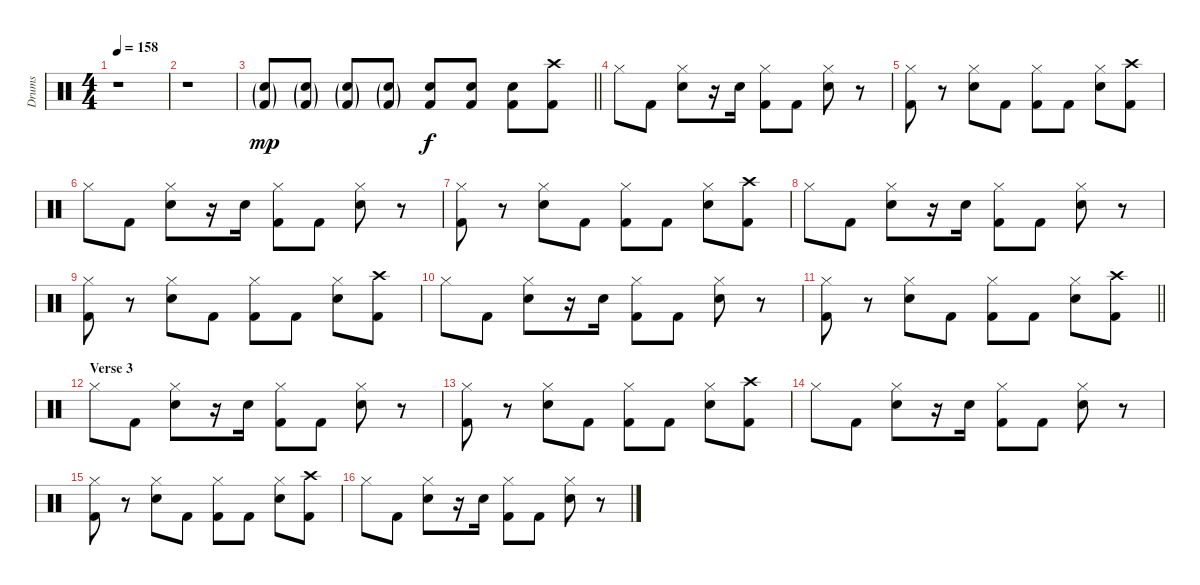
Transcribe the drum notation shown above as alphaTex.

\track ("Drums" "Drums") {instrument percussion}
\staff {score}
\articulation defaults
\ts (4 4)
\tempo 158
\clef neutral
\ks c
r.1{dy f} |
r.1 |
\barLineRight lightlight
("Snare (hit) 2"{g} "Kick (hit) 2"{g}).8{dy mp} ("Snare (hit) 2"{g} "Kick (hit) 2"{g}).8 ("Snare (hit) 2"{g} "Kick (hit) 2"{g}).8 ("Snare (hit) 2"{g} "Kick (hit) 2"{g}).8 ("Snare (hit) 2" "Kick (hit) 2").8{dy f} ("Snare (hit) 2" "Kick (hit) 2").8 ("Snare (hit) 2" "Kick (hit) 2").8 ("Crash high (hit)" "Kick (hit) 2").8 |
"Hi-Hat (closed)".8 "Kick (hit) 2".8 ("Hi-Hat (closed)" "Snare (hit) 2").8 r.16 "Snare (hit) 2".16 ("Hi-Hat (closed)" "Kick (hit) 2").8 "Kick (hit) 2".8 ("Hi-Hat (closed)" "Snare (hit) 2").8 r.8 |
("Hi-Hat (closed)" "Kick (hit) 2").8 r.8 ("Hi-Hat (closed)" "Snare (hit) 2").8 "Kick (hit) 2".8 ("Hi-Hat (closed)" "Kick (hit) 2").8 "Kick (hit) 2".8 ("Hi-Hat (closed)" "Snare (hit) 2").8 ("Crash high (hit)" "Kick (hit) 2").8 |
"Hi-Hat (closed)".8 "Kick (hit) 2".8 ("Hi-Hat (closed)" "Snare (hit) 2").8 r.16 "Snare (hit) 2".16 ("Hi-Hat (closed)" "Kick (hit) 2").8 "Kick (hit) 2".8 ("Hi-Hat (closed)" "Snare (hit) 2").8 r.8 |
("Hi-Hat (closed)" "Kick (hit) 2").8 r.8 ("Hi-Hat (closed)" "Snare (hit) 2").8 "Kick (hit) 2".8 ("Hi-Hat (closed)" "Kick (hit) 2").8 "Kick (hit) 2".8 ("Hi-Hat (closed)" "Snare (hit) 2").8 ("Crash high (hit)" "Kick (hit) 2").8 |
"Hi-Hat (closed)".8 "Kick (hit) 2".8 ("Hi-Hat (closed)" "Snare (hit) 2").8 r.16 "Snare (hit) 2".16 ("Hi-Hat (closed)" "Kick (hit) 2").8 "Kick (hit) 2".8 ("Hi-Hat (closed)" "Snare (hit) 2").8 r.8 |
("Hi-Hat (closed)" "Kick (hit) 2").8 r.8 ("Hi-Hat (closed)" "Snare (hit) 2").8 "Kick (hit) 2".8 ("Hi-Hat (closed)" "Kick (hit) 2").8 "Kick (hit) 2".8 ("Hi-Hat (closed)" "Snare (hit) 2").8 ("Crash high (hit)" "Kick (hit) 2").8 |
"Hi-Hat (closed)".8 "Kick (hit) 2".8 ("Hi-Hat (closed)" "Snare (hit) 2").8 r.16 "Snare (hit) 2".16 ("Hi-Hat (closed)" "Kick (hit) 2").8 "Kick (hit) 2".8 ("Hi-Hat (closed)" "Snare (hit) 2").8 r.8 |
\barLineRight lightlight
("Hi-Hat (closed)" "Kick (hit) 2").8 r.8 ("Hi-Hat (closed)" "Snare (hit) 2").8 "Kick (hit) 2".8 ("Hi-Hat (closed)" "Kick (hit) 2").8 "Kick (hit) 2".8 ("Hi-Hat (closed)" "Snare (hit) 2").8 ("Crash high (hit)" "Kick (hit) 2").8 |
\section ("" "Verse 3")
"Hi-Hat (closed)".8 "Kick (hit) 2".8 ("Hi-Hat (closed)" "Snare (hit) 2").8 r.16 "Snare (hit) 2".16 ("Hi-Hat (closed)" "Kick (hit) 2").8 "Kick (hit) 2".8 ("Hi-Hat (closed)" "Snare (hit) 2").8 r.8 |
("Hi-Hat (closed)" "Kick (hit) 2").8 r.8 ("Hi-Hat (closed)" "Snare (hit) 2").8 "Kick (hit) 2".8 ("Hi-Hat (closed)" "Kick (hit) 2").8 "Kick (hit) 2".8 ("Hi-Hat (closed)" "Snare (hit) 2").8 ("Crash high (hit)" "Kick (hit) 2").8 |
"Hi-Hat (closed)".8 "Kick (hit) 2".8 ("Hi-Hat (closed)" "Snare (hit) 2").8 r.16 "Snare (hit) 2".16 ("Hi-Hat (closed)" "Kick (hit) 2").8 "Kick (hit) 2".8 ("Hi-Hat (closed)" "Snare (hit) 2").8 r.8 |
("Hi-Hat (closed)" "Kick (hit) 2").8 r.8 ("Hi-Hat (closed)" "Snare (hit) 2").8 "Kick (hit) 2".8 ("Hi-Hat (closed)" "Kick (hit) 2").8 "Kick (hit) 2".8 ("Hi-Hat (closed)" "Snare (hit) 2").8 ("Crash high (hit)" "Kick (hit) 2").8 |
"Hi-Hat (closed)".8 "Kick (hit) 2".8 ("Hi-Hat (closed)" "Snare (hit) 2").8 r.16 "Snare (hit) 2".16 ("Hi-Hat (closed)" "Kick (hit) 2").8 "Kick (hit) 2".8 ("Hi-Hat (closed)" "Snare (hit) 2").8 r.8
